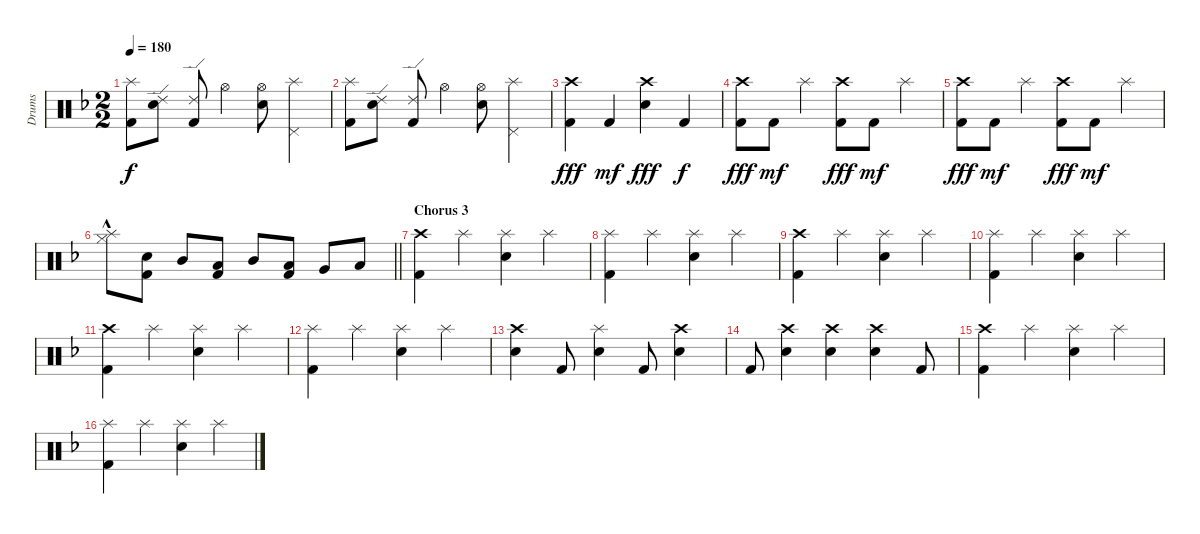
\track ("Drums" "Drums") {instrument percussion}
\staff {score}
\articulation defaults
\ts (2 2)
\tempo 180
\clef neutral
\ks dminor
("Splash (hit)" "Kick (hit) 2").8{dy f} ("Snare (hit) 2" "Ride (edge) 2").8 ("Ride (edge) 2" "Kick (hit) 2").8 "Hi-Hat (open)".4 ("Snare (hit) 2" "Hi-Hat (open)").8 ("Pedal Hi-Hat (hit)" "Splash (hit)").4 |
("Splash (hit)" "Kick (hit) 2").8 ("Snare (hit) 2" "Ride (edge) 2").8 ("Ride (edge) 2" "Kick (hit) 2").8 "Hi-Hat (open)".4 ("Snare (hit) 2" "Hi-Hat (open)").8 ("Pedal Hi-Hat (hit)" "Splash (hit)").4 |
("Crash high (hit)" "Kick (hit) 2").4{dy fff} "Kick (hit) 2".4{dy mf} ("Crash high (hit)" "Snare (hit) 2").4{dy fff} "Kick (hit) 2".4{dy f} |
("Crash high (hit)" "Kick (hit) 2").8{dy fff} "Kick (hit) 2".8{dy mf} "Splash (hit)".4 ("Crash high (hit)" "Kick (hit) 2").8{dy fff} "Kick (hit) 2".8{dy mf} "Splash (hit)".4 |
("Crash high (hit)" "Kick (hit) 2").8{dy fff} "Kick (hit) 2".8{dy mf} "Splash (hit)".4 ("Crash high (hit)" "Kick (hit) 2").8{dy fff} "Kick (hit) 2".8{dy mf} "Splash (hit)".4 |
\barLineRight lightlight
("Hi-Hat (closed)"{hac} "Splash (hit)").8 ("Snare (hit) 2" "Kick (hit) 2").8 "Mid Tom (hit)".8 ("Low Tom (hit)" "Kick (hit) 2").8 "Mid Tom (hit)".8 ("Low Tom (hit)" "Kick (hit) 2").8 "Very Low Tom (hit)".8 "Low Floor Tom (hit)".8 |
\section ("" "Chorus 3")
("Crash high (hit)" "Kick (hit) 2").4 "Splash (hit)".4 ("Splash (hit)" "Snare (hit) 2").4 "Splash (hit)".4 |
("Splash (hit)" "Kick (hit) 2").4 "Splash (hit)".4 ("Splash (hit)" "Snare (hit) 2").4 "Splash (hit)".4 |
("Crash high (hit)" "Kick (hit) 2").4 "Splash (hit)".4 ("Splash (hit)" "Snare (hit) 2").4 "Splash (hit)".4 |
("Splash (hit)" "Kick (hit) 2").4 "Splash (hit)".4 ("Splash (hit)" "Snare (hit) 2").4 "Splash (hit)".4 |
("Crash high (hit)" "Kick (hit) 2").4 "Splash (hit)".4 ("Splash (hit)" "Snare (hit) 2").4 "Splash (hit)".4 |
("Splash (hit)" "Kick (hit) 2").4 "Splash (hit)".4 ("Splash (hit)" "Snare (hit) 2").4 "Splash (hit)".4 |
("Crash high (hit)" "Snare (hit) 2").4 "Kick (hit) 2".8 ("Splash (hit)" "Snare (hit) 2").4 "Kick (hit) 2".8 ("Snare (hit) 2" "Crash high (hit)").4 |
"Kick (hit) 2".8 ("Crash high (hit)" "Snare (hit) 2").4 ("Crash high (hit)" "Snare (hit) 2").4 ("Crash high (hit)" "Snare (hit) 2").4 "Kick (hit) 2".8 |
("Crash high (hit)" "Kick (hit) 2").4 "Splash (hit)".4 ("Splash (hit)" "Snare (hit) 2").4 "Splash (hit)".4 |
("Splash (hit)" "Kick (hit) 2").4 "Splash (hit)".4 ("Splash (hit)" "Snare (hit) 2").4 "Splash (hit)".4
